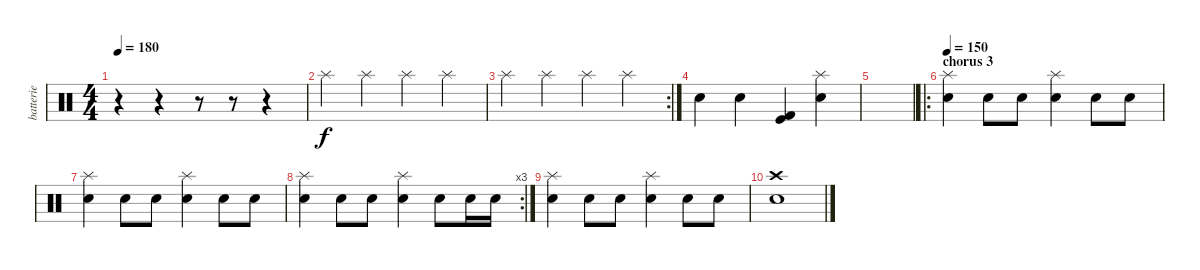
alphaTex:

\track ("batterie" "batterie") {instrument percussion}
\staff {score}
\articulation defaults
\ts (4 4)
\tempo 180
\clef neutral
\ks c
r.4{dy f} r.4 r.8 r.8 r.4 |
"Splash (hit)".4 "Splash (hit)".4 "Splash (hit)".4 "Splash (hit)".4 |
\rc 2 "Splash (hit)".4 "Splash (hit)".4 "Splash (hit)".4 "Splash (hit)".4
|
"Snare (hit) 2".4 "Snare (hit) 2".4 ("Kick (hit)" "Kick (hit) 2").4 ("Electric Snare (hit)" "Splash (hit)").4 |
|
\ro
\section ("" "chorus 3")
\tempo 150
("Splash (hit)" "Electric Snare (hit)").4 "Snare (hit) 2".8 "Snare (hit) 2".8 ("Splash (hit)" "Electric Snare (hit)").4 "Snare (hit) 2".8 "Snare (hit) 2".8 |
("Splash (hit)" "Electric Snare (hit)").4 "Snare (hit) 2".8 "Snare (hit) 2".8 ("Splash (hit)" "Electric Snare (hit)").4 "Snare (hit) 2".8 "Snare (hit) 2".8 |
\rc 3
("Splash (hit)" "Electric Snare (hit)").4 "Snare (hit) 2".8 "Snare (hit) 2".8 ("Splash (hit)" "Electric Snare (hit)").4 "Snare (hit) 2".8 "Snare (hit) 2".16 "Snare (hit) 2".16 |
("Splash (hit)" "Electric Snare (hit)").4 "Snare (hit) 2".8 "Snare (hit) 2".8 ("Splash (hit)" "Electric Snare (hit)").4 "Snare (hit) 2".8 "Snare (hit) 2".8 |
("Crash high (hit)" "Electric Snare (hit)").1
